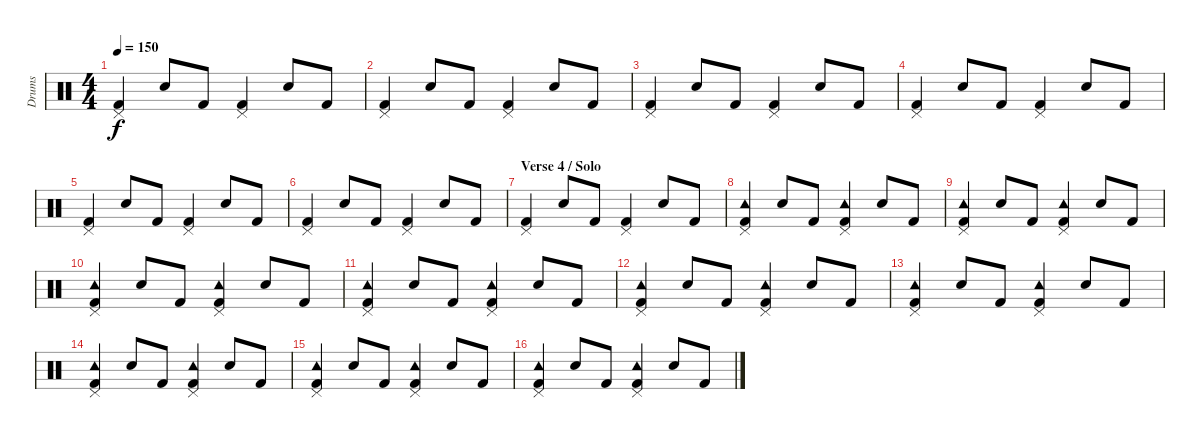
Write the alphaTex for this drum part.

\track ("Drums" "Drums") {instrument percussion}
\staff {score}
\articulation defaults
\ts (4 4)
\tempo 150
\clef neutral
\ks c
("Kick (hit) 2" "Pedal Hi-Hat (hit)").4{dy f} "Snare (hit) 2".8 "Kick (hit) 2".8 ("Kick (hit) 2" "Pedal Hi-Hat (hit)").4 "Snare (hit) 2".8 "Kick (hit) 2".8 |
("Kick (hit) 2" "Pedal Hi-Hat (hit)").4 "Snare (hit) 2".8 "Kick (hit) 2".8 ("Kick (hit) 2" "Pedal Hi-Hat (hit)").4 "Snare (hit) 2".8 "Kick (hit) 2".8 |
("Kick (hit) 2" "Pedal Hi-Hat (hit)").4 "Snare (hit) 2".8 "Kick (hit) 2".8 ("Kick (hit) 2" "Pedal Hi-Hat (hit)").4 "Snare (hit) 2".8 "Kick (hit) 2".8 |
("Kick (hit) 2" "Pedal Hi-Hat (hit)").4 "Snare (hit) 2".8 "Kick (hit) 2".8 ("Kick (hit) 2" "Pedal Hi-Hat (hit)").4 "Snare (hit) 2".8 "Kick (hit) 2".8 |
("Kick (hit) 2" "Pedal Hi-Hat (hit)").4 "Snare (hit) 2".8 "Kick (hit) 2".8 ("Kick (hit) 2" "Pedal Hi-Hat (hit)").4 "Snare (hit) 2".8 "Kick (hit) 2".8 |
("Kick (hit) 2" "Pedal Hi-Hat (hit)").4 "Snare (hit) 2".8 "Kick (hit) 2".8 ("Kick (hit) 2" "Pedal Hi-Hat (hit)").4 "Snare (hit) 2".8 "Kick (hit) 2".8 |
\section ("" "Verse 4 / Solo")
("Kick (hit) 2" "Pedal Hi-Hat (hit)").4 "Snare (hit) 2".8 "Kick (hit) 2".8 ("Kick (hit) 2" "Pedal Hi-Hat (hit)").4 "Snare (hit) 2".8 "Kick (hit) 2".8 |
("Kick (hit) 2" "Pedal Hi-Hat (hit)" "Tambourine (hit)").4 "Snare (hit) 2".8 "Kick (hit) 2".8 ("Kick (hit) 2" "Pedal Hi-Hat (hit)" "Tambourine (hit)").4 "Snare (hit) 2".8 "Kick (hit) 2".8 |
("Kick (hit) 2" "Pedal Hi-Hat (hit)" "Tambourine (hit)").4 "Snare (hit) 2".8 "Kick (hit) 2".8 ("Kick (hit) 2" "Pedal Hi-Hat (hit)" "Tambourine (hit)").4 "Snare (hit) 2".8 "Kick (hit) 2".8 |
("Kick (hit) 2" "Pedal Hi-Hat (hit)" "Tambourine (hit)").4 "Snare (hit) 2".8 "Kick (hit) 2".8 ("Kick (hit) 2" "Pedal Hi-Hat (hit)" "Tambourine (hit)").4 "Snare (hit) 2".8 "Kick (hit) 2".8 |
("Kick (hit) 2" "Pedal Hi-Hat (hit)" "Tambourine (hit)").4 "Snare (hit) 2".8 "Kick (hit) 2".8 ("Kick (hit) 2" "Pedal Hi-Hat (hit)" "Tambourine (hit)").4 "Snare (hit) 2".8 "Kick (hit) 2".8 |
("Kick (hit) 2" "Pedal Hi-Hat (hit)" "Tambourine (hit)").4 "Snare (hit) 2".8 "Kick (hit) 2".8 ("Kick (hit) 2" "Pedal Hi-Hat (hit)" "Tambourine (hit)").4 "Snare (hit) 2".8 "Kick (hit) 2".8 |
("Kick (hit) 2" "Pedal Hi-Hat (hit)" "Tambourine (hit)").4 "Snare (hit) 2".8 "Kick (hit) 2".8 ("Kick (hit) 2" "Pedal Hi-Hat (hit)" "Tambourine (hit)").4 "Snare (hit) 2".8 "Kick (hit) 2".8 |
("Kick (hit) 2" "Pedal Hi-Hat (hit)" "Tambourine (hit)").4 "Snare (hit) 2".8 "Kick (hit) 2".8 ("Kick (hit) 2" "Pedal Hi-Hat (hit)" "Tambourine (hit)").4 "Snare (hit) 2".8 "Kick (hit) 2".8 |
("Kick (hit) 2" "Pedal Hi-Hat (hit)" "Tambourine (hit)").4 "Snare (hit) 2".8 "Kick (hit) 2".8 ("Kick (hit) 2" "Pedal Hi-Hat (hit)" "Tambourine (hit)").4 "Snare (hit) 2".8 "Kick (hit) 2".8 |
("Kick (hit) 2" "Pedal Hi-Hat (hit)" "Tambourine (hit)").4 "Snare (hit) 2".8 "Kick (hit) 2".8 ("Kick (hit) 2" "Pedal Hi-Hat (hit)" "Tambourine (hit)").4 "Snare (hit) 2".8 "Kick (hit) 2".8
